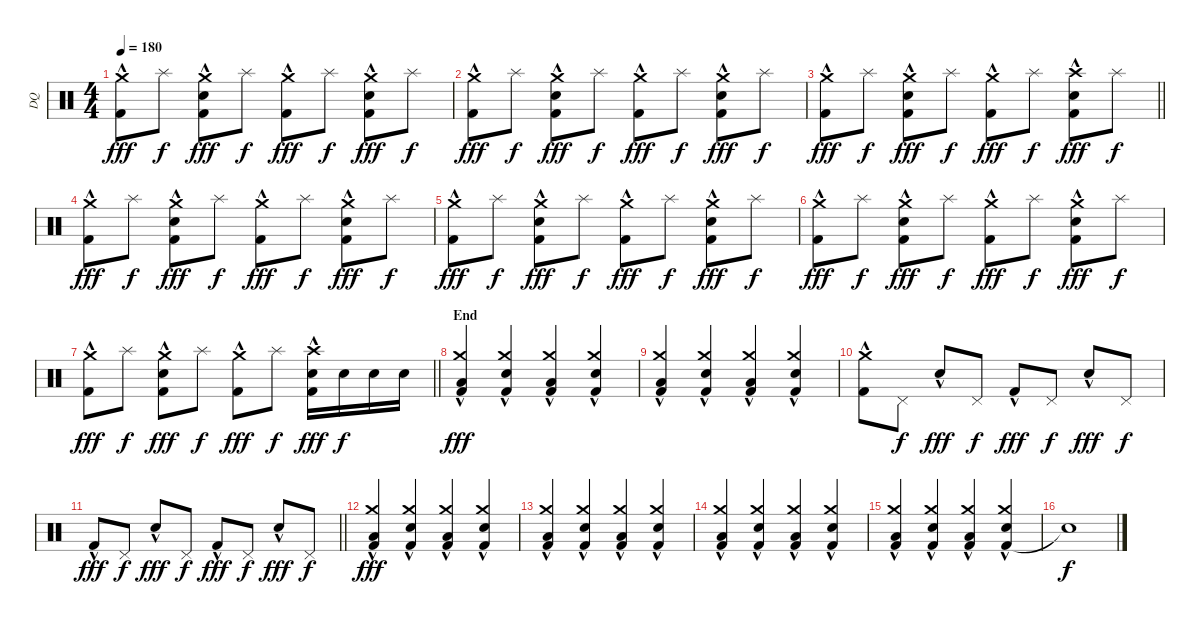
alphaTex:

\track ("DQ" "DQ") {instrument percussion}
\staff {score}
\articulation defaults
\ts (4 4)
\tempo 180
\clef neutral
\ks c
("Kick (hit) 2"{hac} "Crash medium (hit)").8{dy fff} "Splash (hit)".8{dy f} ("Kick (hit) 2"{hac} "Snare (hit) 2"{hac} "Crash medium (hit)").8{dy fff} "Splash (hit)".8{dy f} ("Kick (hit) 2"{hac} "Crash medium (hit)").8{dy fff} "Splash (hit)".8{dy f} ("Kick (hit) 2"{hac} "Snare (hit) 2"{hac} "Crash medium (hit)").8{dy fff} "Splash (hit)".8{dy f} |
("Kick (hit) 2"{hac} "Crash medium (hit)").8{dy fff} "Splash (hit)".8{dy f} ("Kick (hit) 2"{hac} "Snare (hit) 2"{hac} "Crash medium (hit)").8{dy fff} "Splash (hit)".8{dy f} ("Kick (hit) 2"{hac} "Crash medium (hit)").8{dy fff} "Splash (hit)".8{dy f} ("Kick (hit) 2"{hac} "Snare (hit) 2"{hac} "Crash medium (hit)").8{dy fff} "Splash (hit)".8{dy f} |
\barLineRight lightlight
("Kick (hit) 2"{hac} "Crash medium (hit)").8{dy fff} "Splash (hit)".8{dy f} ("Kick (hit) 2"{hac} "Snare (hit) 2"{hac} "Crash medium (hit)").8{dy fff} "Splash (hit)".8{dy f} ("Kick (hit) 2"{hac} "Crash medium (hit)").8{dy fff} "Splash (hit)".8{dy f} ("Kick (hit) 2"{hac} "Snare (hit) 2"{hac} "Crash high (hit)").8{dy fff} "Splash (hit)".8{dy f} |
\section ("" "")
("Kick (hit) 2"{hac} "Crash medium (hit)").8{dy fff volume 13} "Splash (hit)".8{dy f} ("Kick (hit) 2"{hac} "Snare (hit) 2"{hac} "Crash medium (hit)").8{dy fff} "Splash (hit)".8{dy f} ("Kick (hit) 2"{hac} "Crash medium (hit)").8{dy fff} "Splash (hit)".8{dy f} ("Kick (hit) 2"{hac} "Snare (hit) 2"{hac} "Crash medium (hit)").8{dy fff} "Splash (hit)".8{dy f} |
("Kick (hit) 2"{hac} "Crash medium (hit)").8{dy fff} "Splash (hit)".8{dy f} ("Kick (hit) 2"{hac} "Snare (hit) 2"{hac} "Crash medium (hit)").8{dy fff} "Splash (hit)".8{dy f} ("Kick (hit) 2"{hac} "Crash medium (hit)").8{dy fff} "Splash (hit)".8{dy f} ("Kick (hit) 2"{hac} "Snare (hit) 2"{hac} "Crash medium (hit)").8{dy fff} "Splash (hit)".8{dy f} |
("Kick (hit) 2"{hac} "Crash medium (hit)").8{dy fff} "Splash (hit)".8{dy f} ("Kick (hit) 2"{hac} "Snare (hit) 2"{hac} "Crash medium (hit)").8{dy fff} "Splash (hit)".8{dy f} ("Kick (hit) 2"{hac} "Crash medium (hit)").8{dy fff} "Splash (hit)".8{dy f} ("Kick (hit) 2"{hac} "Snare (hit) 2"{hac} "Crash medium (hit)").8{dy fff} "Splash (hit)".8{dy f} |
\barLineRight lightlight
("Kick (hit) 2"{hac} "Crash medium (hit)").8{dy fff} "Splash (hit)".8{dy f} ("Kick (hit) 2"{hac} "Snare (hit) 2"{hac} "Crash medium (hit)").8{dy fff} "Splash (hit)".8{dy f} ("Kick (hit) 2"{hac} "Crash medium (hit)").8{dy fff} "Splash (hit)".8{dy f} ("Kick (hit) 2"{hac} "Snare (hit) 2"{hac} "Crash high (hit)").16{dy fff} "Snare (hit) 2".16{dy f} "Snare (hit) 2".16 "Snare (hit) 2".16 |
\section ("" "End")
("Kick (hit) 2"{hac} "Low Floor Tom (hit)"{hac} "Crash medium (hit)").4{dy fff volume 13} ("Kick (hit) 2"{hac} "Snare (hit) 2"{hac} "Crash medium (hit)").4 ("Kick (hit) 2"{hac} "Low Floor Tom (hit)"{hac} "Crash medium (hit)").4 ("Kick (hit) 2"{hac} "Snare (hit) 2"{hac} "Crash medium (hit)").4 |
("Kick (hit) 2"{hac} "Low Floor Tom (hit)"{hac} "Crash medium (hit)").4 ("Kick (hit) 2"{hac} "Snare (hit) 2"{hac} "Crash medium (hit)").4 ("Kick (hit) 2"{hac} "Low Floor Tom (hit)"{hac} "Crash medium (hit)").4 ("Kick (hit) 2"{hac} "Snare (hit) 2"{hac} "Crash medium (hit)").4 |
("Kick (hit) 2"{hac} "Crash medium (hit)").8 "Pedal Hi-Hat (hit)".8{dy f} "Snare (hit) 2"{hac}.8{dy fff} "Pedal Hi-Hat (hit)".8{dy f} "Kick (hit) 2"{hac}.8{dy fff} "Pedal Hi-Hat (hit)".8{dy f} "Snare (hit) 2"{hac}.8{dy fff} "Pedal Hi-Hat (hit)".8{dy f} |
\barLineRight lightlight "Kick (hit) 2"{hac}.8{dy fff} "Pedal Hi-Hat (hit)".8{dy f} "Snare (hit) 2"{hac}.8{dy fff} "Pedal Hi-Hat (hit)".8{dy f} "Kick (hit) 2"{hac}.8{dy fff} "Pedal Hi-Hat (hit)".8{dy f} "Snare (hit) 2"{hac}.8{dy fff} "Pedal Hi-Hat (hit)".8{dy f}
|
\section ("" "")
("Kick (hit) 2"{hac} "Low Floor Tom (hit)"{hac} "Crash medium (hit)").4{dy fff volume 13} ("Kick (hit) 2"{hac} "Snare (hit) 2"{hac} "Crash medium (hit)").4 ("Kick (hit) 2"{hac} "Low Floor Tom (hit)"{hac} "Crash medium (hit)").4 ("Kick (hit) 2"{hac} "Snare (hit) 2"{hac} "Crash medium (hit)").4 |
("Kick (hit) 2"{hac} "Low Floor Tom (hit)"{hac} "Crash medium (hit)").4 ("Kick (hit) 2"{hac} "Snare (hit) 2"{hac} "Crash medium (hit)").4 ("Kick (hit) 2"{hac} "Low Floor Tom (hit)"{hac} "Crash medium (hit)").4 ("Kick (hit) 2"{hac} "Snare (hit) 2"{hac} "Crash medium (hit)").4 |
("Kick (hit) 2"{hac} "Low Floor Tom (hit)"{hac} "Crash medium (hit)").4{volume 13} ("Kick (hit) 2"{hac} "Snare (hit) 2"{hac} "Crash medium (hit)").4{volume 9} ("Kick (hit) 2"{hac} "Low Floor Tom (hit)"{hac} "Crash medium (hit)").4 ("Kick (hit) 2"{hac} "Snare (hit) 2"{hac} "Crash medium (hit)").4 |
("Kick (hit) 2"{hac} "Low Floor Tom (hit)"{hac} "Crash medium (hit)").4 ("Kick (hit) 2"{hac} "Snare (hit) 2"{hac} "Crash medium (hit)").4 ("Kick (hit) 2"{hac} "Low Floor Tom (hit)"{hac} "Crash medium (hit)").4 ("Kick (hit) 2"{hac} "Snare (hit) 2"{hac} "Crash medium (hit)").4 |
"Snare (hit)"{t}.1{dy f}
